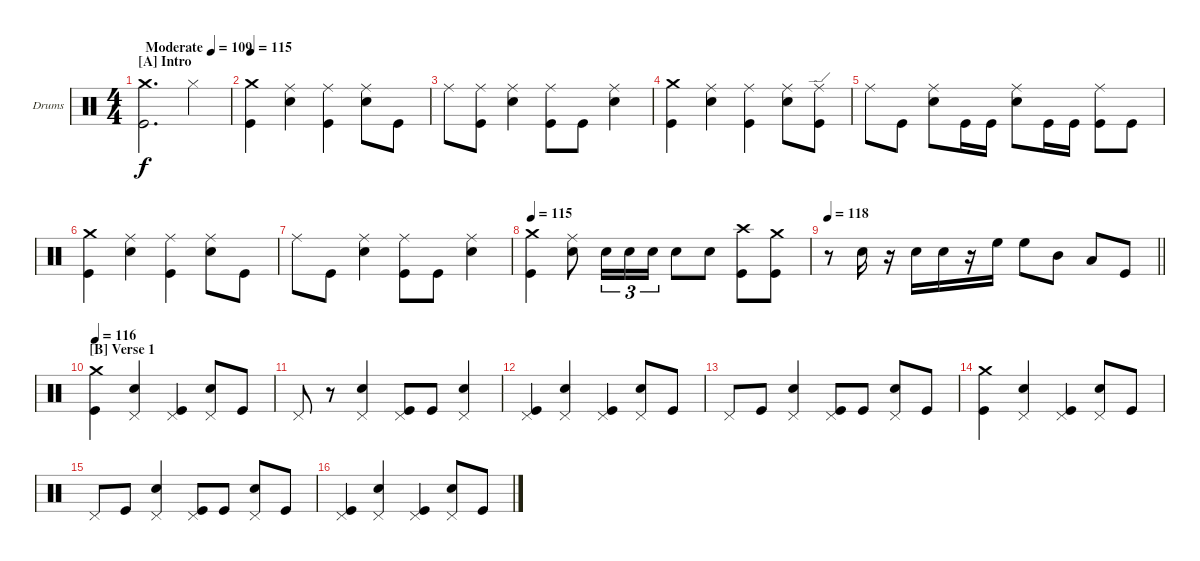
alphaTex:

\bracketExtendMode groupsimilarinstruments
\firstSystemTrackNameOrientation horizontal
\otherSystemsTrackNameOrientation horizontal
\track ("Vinny Appice" "Drums") {instrument percussion}
\staff {score}
\articulation defaults
\ts (4 4)
\beaming (8 2 2 2 2)
\section ("A" "Intro")
\tempo (109 "Moderate")
\clef neutral
\ks c
("Kick (hit)" "Crash medium (hit)").2{d dy f} "Hi-Hat (closed)".4 |
\tempo 115
("Kick (hit)" "Crash medium (hit)").4 ("Snare (hit) 2" "Ride (middle)").4 ("Kick (hit)" "Ride (middle)").4 ("Snare (hit) 2" "Ride (middle)").8 "Kick (hit)".8 |
"Ride (middle)".8 ("Kick (hit)" "Ride (middle)").8 ("Snare (hit) 2" "Ride (middle)").4 ("Kick (hit)" "Ride (middle)").8 "Kick (hit)".8 ("Snare (hit) 2" "Ride (middle)").4 |
("Kick (hit)" "Crash medium (hit)").4 ("Snare (hit) 2" "Ride (middle)").4 ("Kick (hit)" "Ride (middle)").4 ("Snare (hit) 2" "Ride (middle)").8 ("Kick (hit)" "Ride (edge)").8 |
"Ride (middle)".8 "Kick (hit)".8 ("Snare (hit) 2" "Ride (middle)").8 "Kick (hit)".16 "Kick (hit)".16 ("Snare (hit) 2" "Ride (middle)").8 "Kick (hit)".16 "Kick (hit)".16 ("Kick (hit)" "Ride (middle)").8 "Kick (hit)".8 |
("Kick (hit)" "Crash medium (hit)").4 ("Snare (hit) 2" "Ride (middle)").4 ("Kick (hit)" "Ride (middle)").4 ("Snare (hit) 2" "Ride (middle)").8 "Kick (hit)".8 |
"Ride (middle)".8 "Kick (hit)".8 ("Snare (hit) 2" "Ride (middle)").4 ("Kick (hit)" "Ride (middle)").8 "Kick (hit)".8 ("Snare (hit) 2" "Ride (middle)").4 |
\tempo 115
("Kick (hit)" "Crash medium (hit)").4 ("Snare (hit) 2" "Ride (middle)").8 "Snare (hit) 2".16{tu (3 2)} "Snare (hit) 2".16{tu (3 2)} "Snare (hit) 2".16{tu (3 2)} "Snare (hit) 2".8 "Snare (hit) 2".8 ("Crash high (hit)" "Kick (hit)").8 ("Kick (hit)" "Crash medium (hit)").8 |
\tempo 118
\barLineRight lightlight
r.8 "Snare (hit) 2".16 r.16 "Snare (hit) 2".16 "Snare (hit) 2".16 r.16 "High Floor Tom (hit)".16 "High Floor Tom (hit)".8 "Mid Tom (hit)".8 "Low Tom (hit)".8 "Kick (hit)".8 |
\section ("B" "Verse 1")
\tempo 116
("Kick (hit)" "Crash medium (hit)").4 ("Pedal Hi-Hat (hit)" "Snare (hit) 2").4 ("Pedal Hi-Hat (hit)" "Kick (hit)").4 ("Pedal Hi-Hat (hit)" "Snare (hit) 2").8 "Kick (hit)".8 |
"Pedal Hi-Hat (hit)".8 r.8 ("Pedal Hi-Hat (hit)" "Snare (hit) 2").4 ("Pedal Hi-Hat (hit)" "Kick (hit)").8 "Kick (hit)".8 ("Pedal Hi-Hat (hit)" "Snare (hit) 2").4 |
("Pedal Hi-Hat (hit)" "Kick (hit)").4 ("Pedal Hi-Hat (hit)" "Snare (hit) 2").4 ("Pedal Hi-Hat (hit)" "Kick (hit)").4 ("Pedal Hi-Hat (hit)" "Snare (hit) 2").8 "Kick (hit)".8 |
"Pedal Hi-Hat (hit)".8 "Kick (hit)".8 ("Pedal Hi-Hat (hit)" "Snare (hit) 2").4 ("Pedal Hi-Hat (hit)" "Kick (hit)").8 "Kick (hit)".8 ("Pedal Hi-Hat (hit)" "Snare (hit) 2").8 "Kick (hit)".8 |
("Kick (hit)" "Crash medium (hit)").4 ("Pedal Hi-Hat (hit)" "Snare (hit) 2").4 ("Pedal Hi-Hat (hit)" "Kick (hit)").4 ("Pedal Hi-Hat (hit)" "Snare (hit) 2").8 "Kick (hit)".8 |
"Pedal Hi-Hat (hit)".8 "Kick (hit)".8 ("Pedal Hi-Hat (hit)" "Snare (hit) 2").4 ("Pedal Hi-Hat (hit)" "Kick (hit)").8 "Kick (hit)".8 ("Pedal Hi-Hat (hit)" "Snare (hit) 2").8 "Kick (hit)".8 |
("Pedal Hi-Hat (hit)" "Kick (hit)").4 ("Pedal Hi-Hat (hit)" "Snare (hit) 2").4 ("Pedal Hi-Hat (hit)" "Kick (hit)").4 ("Pedal Hi-Hat (hit)" "Snare (hit) 2").8 "Kick (hit)".8
